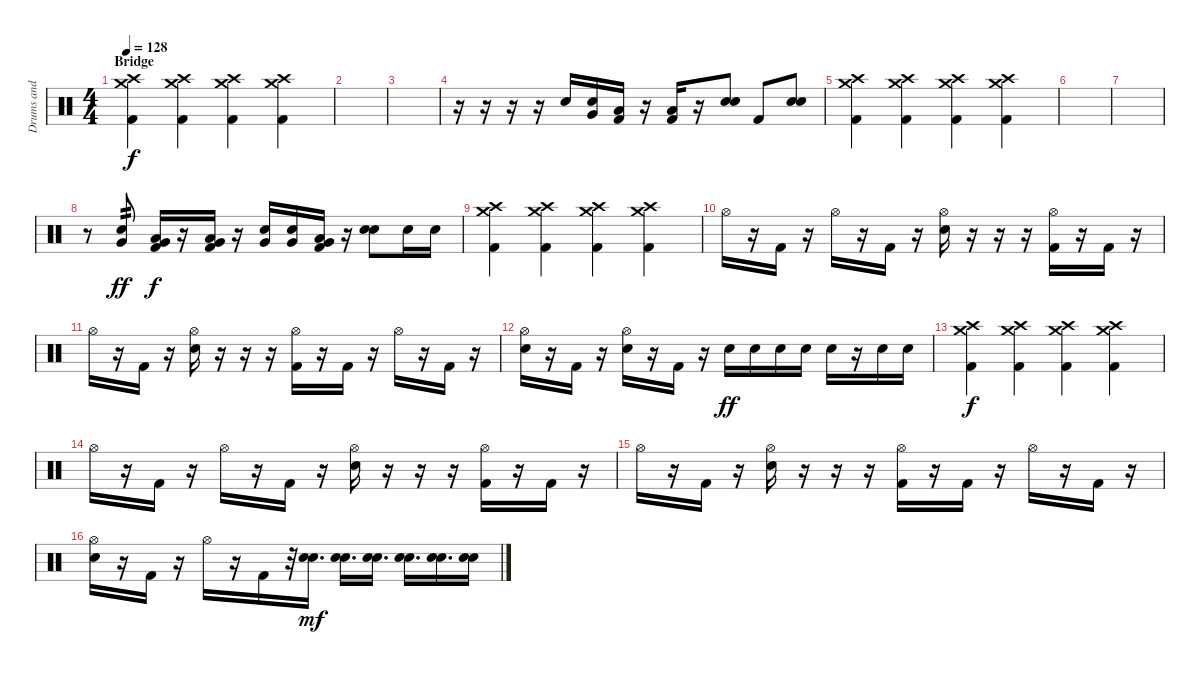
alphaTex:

\track ("Drums and Percussions" "Drums and ") {instrument percussion}
\staff {score}
\articulation defaults
\ts (4 4)
\section ("" "Bridge")
\tempo 128
\clef neutral
\ks c
("Crash medium (hit)" "Crash high (hit)" "Kick (hit) 2").4{dy f} ("Crash medium (hit)" "Crash high (hit)" "Kick (hit) 2").4 ("Crash medium (hit)" "Crash high (hit)" "Kick (hit) 2").4 ("Crash medium (hit)" "Crash high (hit)" "Kick (hit) 2").4 |
|
|
r.16 r.16 r.16 r.16 "Electric Snare (hit)".16 ("Electric Snare (hit)" "Very Low Tom (hit)").16 ("Low Tom (hit)" "Kick (hit) 2").16 r.16 ("Low Tom (hit)" "Kick (hit) 2").16 r.16 ("Electric Snare (hit)" "Electric Snare (hit)").8{bd 120} "Kick (hit) 2".8 ("Electric Snare (hit)" "Electric Snare (hit)").8{bd 120} |
("Crash medium (hit)" "Crash high (hit)" "Kick (hit) 2").4 ("Crash medium (hit)" "Crash high (hit)" "Kick (hit) 2").4 ("Crash medium (hit)" "Crash high (hit)" "Kick (hit) 2").4 ("Crash medium (hit)" "Crash high (hit)" "Kick (hit) 2").4 |
|
|
r.8 ("Electric Snare (hit)" "Very Low Tom (hit)").8{tp 2 dy ff} ("Low Tom (hit)" "Very Low Tom (hit)" "Kick (hit) 2").16{dy f} r.16 ("Low Tom (hit)" "Very Low Tom (hit)" "Kick (hit) 2").16 r.16 ("Electric Snare (hit)" "Very Low Tom (hit)").16 ("Electric Snare (hit)" "Very Low Tom (hit)").16 ("Low Tom (hit)" "Very Low Tom (hit)" "Kick (hit) 2").16 r.16 ("Electric Snare (hit)" "Electric Snare (hit)").8{bd 60} "Electric Snare (hit)".16 "Electric Snare (hit)".16 |
("Crash medium (hit)" "Crash high (hit)" "Kick (hit) 2").4 ("Crash medium (hit)" "Crash high (hit)" "Kick (hit) 2").4 ("Crash medium (hit)" "Crash high (hit)" "Kick (hit) 2").4 ("Crash medium (hit)" "Crash high (hit)" "Kick (hit) 2").4 |
"Hi-Hat (open)".16 r.16 "Kick (hit) 2".16 r.16 "Hi-Hat (open)".16 r.16 "Kick (hit) 2".16 r.16 ("Hi-Hat (open)" "Electric Snare (hit)").16 r.16 r.16 r.16 ("Hi-Hat (open)" "Kick (hit) 2").16 r.16 "Kick (hit) 2".16 r.16 |
"Hi-Hat (open)".16 r.16 "Kick (hit) 2".16 r.16 ("Hi-Hat (open)" "Electric Snare (hit)").16 r.16 r.16 r.16 ("Hi-Hat (open)" "Kick (hit) 2").16 r.16 "Kick (hit) 2".16 r.16 "Hi-Hat (open)".16 r.16 "Kick (hit) 2".16 r.16 |
("Hi-Hat (open)" "Electric Snare (hit)").16 r.16 "Kick (hit) 2".16 r.16 ("Hi-Hat (open)" "Electric Snare (hit)").16 r.16 "Kick (hit) 2".16 r.16 "Electric Snare (hit)".16{dy ff} "Electric Snare (hit)".16 "Electric Snare (hit)".16 "Electric Snare (hit)".16 "Electric Snare (hit)".16 r.16 "Electric Snare (hit)".16 "Electric Snare (hit)".16 |
("Crash medium (hit)" "Crash high (hit)" "Kick (hit) 2").4{dy f} ("Crash medium (hit)" "Crash high (hit)" "Kick (hit) 2").4 ("Crash medium (hit)" "Crash high (hit)" "Kick (hit) 2").4 ("Crash medium (hit)" "Crash high (hit)" "Kick (hit) 2").4 |
"Hi-Hat (open)".16 r.16 "Kick (hit) 2".16 r.16 "Hi-Hat (open)".16 r.16 "Kick (hit) 2".16 r.16 ("Hi-Hat (open)" "Electric Snare (hit)").16 r.16 r.16 r.16 ("Hi-Hat (open)" "Kick (hit) 2").16 r.16 "Kick (hit) 2".16 r.16 |
"Hi-Hat (open)".16 r.16 "Kick (hit) 2".16 r.16 ("Hi-Hat (open)" "Electric Snare (hit)").16 r.16 r.16 r.16 ("Hi-Hat (open)" "Kick (hit) 2").16 r.16 "Kick (hit) 2".16 r.16 "Hi-Hat (open)".16 r.16 "Kick (hit) 2".16 r.16 |
("Hi-Hat (open)" "Electric Snare (hit)").16 r.16 "Kick (hit) 2".16 r.16 "Hi-Hat (open)".16 r.16 "Kick (hit) 2".16 r.32 ("Electric Snare (hit)" "Electric Snare (hit)").16{d dy mf} ("Electric Snare (hit)" "Electric Snare (hit)").16{d} ("Electric Snare (hit)" "Electric Snare (hit)").16{d} ("Electric Snare (hit)" "Electric Snare (hit)").16{d} ("Electric Snare (hit)" "Electric Snare (hit)").16{d} ("Electric Snare (hit)" "Electric Snare (hit)").16
